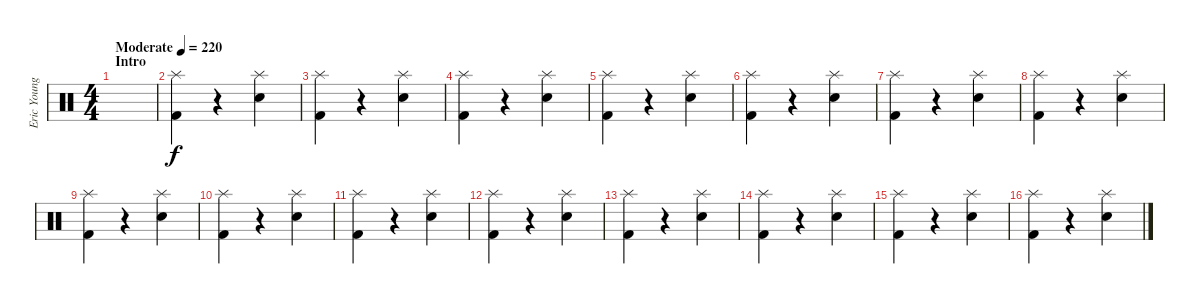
\track ("Eric Young (Drums)" "Eric Young") {instrument percussion}
\staff {score}
\articulation defaults
\ts (4 4)
\section ("" "Intro")
\tempo (220 "Moderate")
\clef neutral
\ks c
|
("Splash (hit)" "Kick (hit) 2").4 r.4 ("Splash (hit)" "Snare (hit) 2").4 |
("Splash (hit)" "Kick (hit) 2").4 r.4 ("Splash (hit)" "Snare (hit) 2").4 |
("Splash (hit)" "Kick (hit) 2").4 r.4 ("Splash (hit)" "Snare (hit) 2").4 |
("Splash (hit)" "Kick (hit) 2").4 r.4 ("Splash (hit)" "Snare (hit) 2").4 |
("Splash (hit)" "Kick (hit) 2").4 r.4 ("Splash (hit)" "Snare (hit) 2").4 |
("Splash (hit)" "Kick (hit) 2").4 r.4 ("Splash (hit)" "Snare (hit) 2").4 |
("Splash (hit)" "Kick (hit) 2").4 r.4 ("Splash (hit)" "Snare (hit) 2").4 |
("Splash (hit)" "Kick (hit) 2").4 r.4 ("Splash (hit)" "Snare (hit) 2").4 |
("Splash (hit)" "Kick (hit) 2").4 r.4 ("Splash (hit)" "Snare (hit) 2").4 |
("Splash (hit)" "Kick (hit) 2").4 r.4 ("Splash (hit)" "Snare (hit) 2").4 |
("Splash (hit)" "Kick (hit) 2").4 r.4 ("Splash (hit)" "Snare (hit) 2").4 |
("Splash (hit)" "Kick (hit) 2").4 r.4 ("Splash (hit)" "Snare (hit) 2").4 |
("Splash (hit)" "Kick (hit) 2").4 r.4 ("Splash (hit)" "Snare (hit) 2").4 |
("Splash (hit)" "Kick (hit) 2").4 r.4 ("Splash (hit)" "Snare (hit) 2").4 |
("Splash (hit)" "Kick (hit) 2").4 r.4 ("Splash (hit)" "Snare (hit) 2").4
